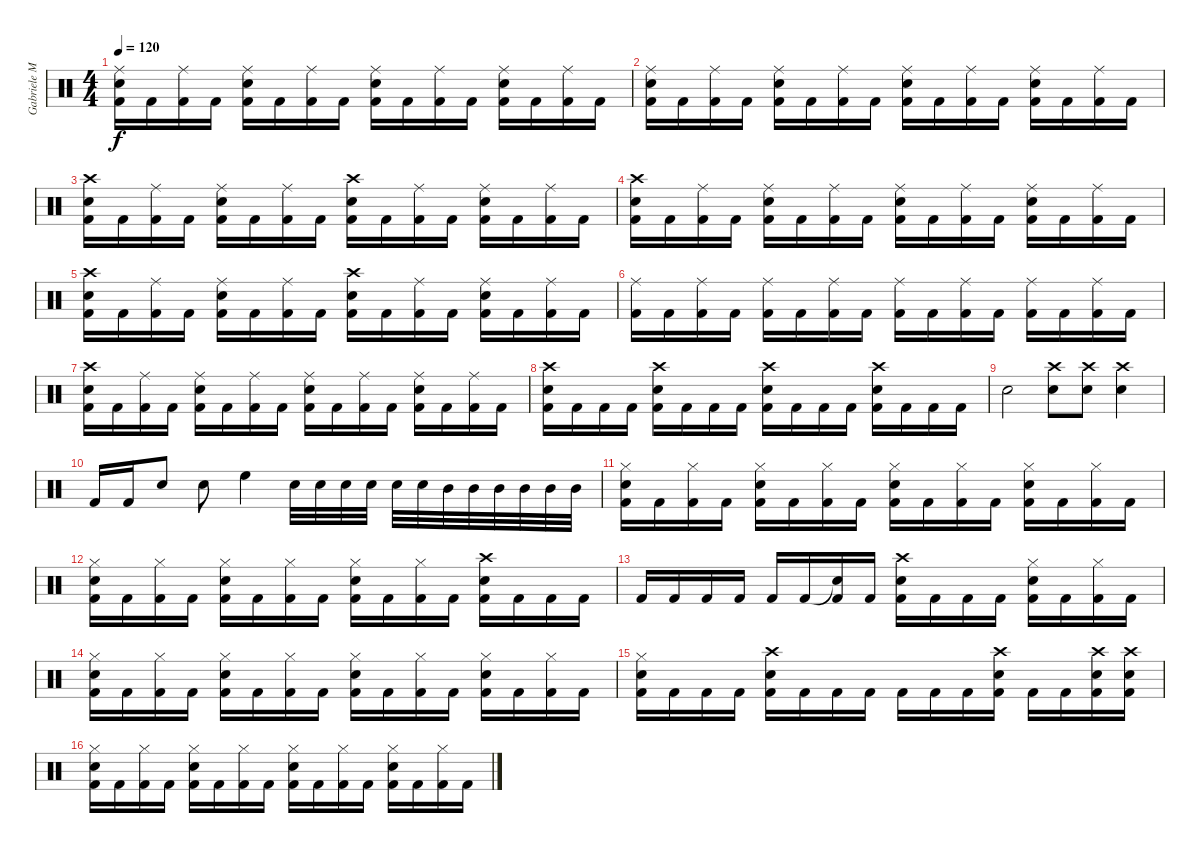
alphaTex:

\track ("Gabriele Malatesta" "Gabriele M") {instrument percussion}
\staff {score}
\articulation defaults
\ts (4 4)
\tempo 120
\clef neutral
\ks c
("Ride (middle)" "Electric Snare (hit)" "Kick (hit) 2").16{dy f} "Kick (hit) 2".16 ("Ride (middle)" "Kick (hit) 2").16 "Kick (hit) 2".16 ("Ride (middle)" "Electric Snare (hit)" "Kick (hit) 2").16 "Kick (hit) 2".16 ("Ride (middle)" "Kick (hit) 2").16 "Kick (hit) 2".16 ("Ride (middle)" "Electric Snare (hit)" "Kick (hit) 2").16 "Kick (hit) 2".16 ("Ride (middle)" "Kick (hit) 2").16 "Kick (hit) 2".16 ("Ride (middle)" "Electric Snare (hit)" "Kick (hit) 2").16 "Kick (hit) 2".16 ("Ride (middle)" "Kick (hit) 2").16 "Kick (hit) 2".16 |
("Ride (middle)" "Electric Snare (hit)" "Kick (hit) 2").16 "Kick (hit) 2".16 ("Ride (middle)" "Kick (hit) 2").16 "Kick (hit) 2".16 ("Ride (middle)" "Electric Snare (hit)" "Kick (hit) 2").16 "Kick (hit) 2".16 ("Ride (middle)" "Kick (hit) 2").16 "Kick (hit) 2".16 ("Ride (middle)" "Electric Snare (hit)" "Kick (hit) 2").16 "Kick (hit) 2".16 ("Ride (middle)" "Kick (hit) 2").16 "Kick (hit) 2".16 ("Ride (middle)" "Electric Snare (hit)" "Kick (hit) 2").16 "Kick (hit) 2".16 ("Ride (middle)" "Kick (hit) 2").16 "Kick (hit) 2".16 |
("Crash high (hit)" "Electric Snare (hit)" "Kick (hit) 2").16 "Kick (hit) 2".16 ("Ride (middle)" "Kick (hit) 2").16 "Kick (hit) 2".16 ("Ride (middle)" "Electric Snare (hit)" "Kick (hit) 2").16 "Kick (hit) 2".16 ("Ride (middle)" "Kick (hit) 2").16 "Kick (hit) 2".16 ("Crash high (hit)" "Electric Snare (hit)" "Kick (hit) 2").16 "Kick (hit) 2".16 ("Ride (middle)" "Kick (hit) 2").16 "Kick (hit) 2".16 ("Ride (middle)" "Electric Snare (hit)" "Kick (hit) 2").16 "Kick (hit) 2".16 ("Ride (middle)" "Kick (hit) 2").16 "Kick (hit) 2".16 |
("Crash high (hit)" "Electric Snare (hit)" "Kick (hit) 2").16 "Kick (hit) 2".16 ("Ride (middle)" "Kick (hit) 2").16 "Kick (hit) 2".16 ("Ride (middle)" "Electric Snare (hit)" "Kick (hit) 2").16 "Kick (hit) 2".16 ("Ride (middle)" "Kick (hit) 2").16 "Kick (hit) 2".16 ("Ride (middle)" "Electric Snare (hit)" "Kick (hit) 2").16 "Kick (hit) 2".16 ("Ride (middle)" "Kick (hit) 2").16 "Kick (hit) 2".16 ("Ride (middle)" "Electric Snare (hit)" "Kick (hit) 2").16 "Kick (hit) 2".16 ("Ride (middle)" "Kick (hit) 2").16 "Kick (hit) 2".16 |
("Crash high (hit)" "Electric Snare (hit)" "Kick (hit) 2").16 "Kick (hit) 2".16 ("Ride (middle)" "Kick (hit) 2").16 "Kick (hit) 2".16 ("Ride (middle)" "Electric Snare (hit)" "Kick (hit) 2").16 "Kick (hit) 2".16 ("Ride (middle)" "Kick (hit) 2").16 "Kick (hit) 2".16 ("Crash high (hit)" "Electric Snare (hit)" "Kick (hit) 2").16 "Kick (hit) 2".16 ("Ride (middle)" "Kick (hit) 2").16 "Kick (hit) 2".16 ("Ride (middle)" "Electric Snare (hit)" "Kick (hit) 2").16 "Kick (hit) 2".16 ("Ride (middle)" "Kick (hit) 2").16 "Kick (hit) 2".16 |
("Ride (middle)" "Kick (hit) 2").16 "Kick (hit) 2".16 ("Ride (middle)" "Kick (hit) 2").16 "Kick (hit) 2".16 ("Ride (middle)" "Kick (hit) 2").16 "Kick (hit) 2".16 ("Ride (middle)" "Kick (hit) 2").16 "Kick (hit) 2".16 ("Ride (middle)" "Kick (hit) 2").16 "Kick (hit) 2".16 ("Ride (middle)" "Kick (hit) 2").16 "Kick (hit) 2".16 ("Ride (middle)" "Kick (hit) 2").16 "Kick (hit) 2".16 ("Ride (middle)" "Kick (hit) 2").16 "Kick (hit) 2".16 |
("Crash high (hit)" "Electric Snare (hit)" "Kick (hit) 2").16 "Kick (hit) 2".16 ("Ride (middle)" "Kick (hit) 2").16 "Kick (hit) 2".16 ("Ride (middle)" "Electric Snare (hit)" "Kick (hit) 2").16 "Kick (hit) 2".16 ("Ride (middle)" "Kick (hit) 2").16 "Kick (hit) 2".16 ("Ride (middle)" "Electric Snare (hit)" "Kick (hit) 2").16 "Kick (hit) 2".16 ("Ride (middle)" "Kick (hit) 2").16 "Kick (hit) 2".16 ("Ride (middle)" "Electric Snare (hit)" "Kick (hit) 2").16 "Kick (hit) 2".16 ("Ride (middle)" "Kick (hit) 2").16 "Kick (hit) 2".16 |
("Crash high (hit)" "Electric Snare (hit)" "Kick (hit) 2").16 "Kick (hit) 2".16 "Kick (hit) 2".16 "Kick (hit) 2".16 ("Crash high (hit)" "Electric Snare (hit)" "Kick (hit) 2").16 "Kick (hit) 2".16 "Kick (hit) 2".16 "Kick (hit) 2".16 ("Crash high (hit)" "Electric Snare (hit)" "Kick (hit) 2").16 "Kick (hit) 2".16 "Kick (hit) 2".16 "Kick (hit) 2".16 ("Crash high (hit)" "Electric Snare (hit)" "Kick (hit) 2").16 "Kick (hit) 2".16 "Kick (hit) 2".16 "Kick (hit) 2".16 |
"Electric Snare (hit)".2 ("Crash high (hit)" "Electric Snare (hit)").8 ("Crash high (hit)" "Electric Snare (hit)").8 ("Crash high (hit)" "Electric Snare (hit)").4 |
"Kick (hit) 2".16 "Kick (hit) 2".16 "Electric Snare (hit)".8 "Electric Snare (hit)".8 "High Floor Tom (hit)".4 "Electric Snare (hit)".32 "Electric Snare (hit)".32 "Electric Snare (hit)".32 "Electric Snare (hit)".32 "Electric Snare (hit)".32 "Electric Snare (hit)".32 "Mid Tom (hit)".32 "Mid Tom (hit)".32 "Mid Tom (hit)".32 "Mid Tom (hit)".32 "Mid Tom (hit)".32 "Mid Tom (hit)".32 |
("Hi-Hat (closed)" "Electric Snare (hit)" "Kick (hit) 2").16 "Kick (hit) 2".16 ("Hi-Hat (closed)" "Kick (hit) 2").16 "Kick (hit) 2".16 ("Hi-Hat (closed)" "Electric Snare (hit)" "Kick (hit) 2").16 "Kick (hit) 2".16 ("Hi-Hat (closed)" "Kick (hit) 2").16 "Kick (hit) 2".16 ("Hi-Hat (closed)" "Electric Snare (hit)" "Kick (hit) 2").16 "Kick (hit) 2".16 ("Hi-Hat (closed)" "Kick (hit) 2").16 "Kick (hit) 2".16 ("Hi-Hat (closed)" "Electric Snare (hit)" "Kick (hit) 2").16 "Kick (hit) 2".16 ("Hi-Hat (closed)" "Kick (hit) 2").16 "Kick (hit) 2".16 |
("Hi-Hat (closed)" "Electric Snare (hit)" "Kick (hit) 2").16 "Kick (hit) 2".16 ("Hi-Hat (closed)" "Kick (hit) 2").16 "Kick (hit) 2".16 ("Hi-Hat (closed)" "Electric Snare (hit)" "Kick (hit) 2").16 "Kick (hit) 2".16 ("Hi-Hat (closed)" "Kick (hit) 2").16 "Kick (hit) 2".16 ("Hi-Hat (closed)" "Electric Snare (hit)" "Kick (hit) 2").16 "Kick (hit) 2".16 ("Hi-Hat (closed)" "Kick (hit) 2").16 "Kick (hit) 2".16 ("Crash high (hit)" "Electric Snare (hit)" "Kick (hit) 2").16 "Kick (hit) 2".16 "Kick (hit) 2".16 "Kick (hit) 2".16 |
"Kick (hit) 2".16 "Kick (hit) 2".16 "Kick (hit) 2".16 "Kick (hit) 2".16 "Kick (hit) 2".16 "Kick (hit) 2".16 ("Snare (hit)"{t} "Kick (hit) 2").16 "Kick (hit) 2".16 ("Crash high (hit)" "Electric Snare (hit)" "Kick (hit) 2").16 "Kick (hit) 2".16 "Kick (hit) 2".16 "Kick (hit) 2".16 ("Hi-Hat (closed)" "Electric Snare (hit)" "Kick (hit) 2").16 "Kick (hit) 2".16 ("Hi-Hat (closed)" "Kick (hit) 2").16 "Kick (hit) 2".16 |
("Hi-Hat (closed)" "Electric Snare (hit)" "Kick (hit) 2").16 "Kick (hit) 2".16 ("Hi-Hat (closed)" "Kick (hit) 2").16 "Kick (hit) 2".16 ("Hi-Hat (closed)" "Electric Snare (hit)" "Kick (hit) 2").16 "Kick (hit) 2".16 ("Hi-Hat (closed)" "Kick (hit) 2").16 "Kick (hit) 2".16 ("Hi-Hat (closed)" "Electric Snare (hit)" "Kick (hit) 2").16 "Kick (hit) 2".16 ("Hi-Hat (closed)" "Kick (hit) 2").16 "Kick (hit) 2".16 ("Hi-Hat (closed)" "Electric Snare (hit)" "Kick (hit) 2").16 "Kick (hit) 2".16 ("Hi-Hat (closed)" "Kick (hit) 2").16 "Kick (hit) 2".16 |
("Hi-Hat (closed)" "Electric Snare (hit)" "Kick (hit) 2").16 "Kick (hit) 2".16 "Kick (hit) 2".16 "Kick (hit) 2".16 ("Crash high (hit)" "Electric Snare (hit)" "Kick (hit) 2").16 "Kick (hit) 2".16 "Kick (hit) 2".16 "Kick (hit) 2".16 "Kick (hit) 2".16 "Kick (hit) 2".16 "Kick (hit) 2".16 ("Crash high (hit)" "Electric Snare (hit)" "Kick (hit) 2").16 "Kick (hit) 2".16 "Kick (hit) 2".16 ("Crash high (hit)" "Electric Snare (hit)" "Kick (hit) 2").16 ("Crash high (hit)" "Electric Snare (hit)" "Kick (hit) 2").16 |
("Hi-Hat (closed)" "Electric Snare (hit)" "Kick (hit) 2").16 "Kick (hit) 2".16 ("Hi-Hat (closed)" "Kick (hit) 2").16 "Kick (hit) 2".16 ("Hi-Hat (closed)" "Electric Snare (hit)" "Kick (hit) 2").16 "Kick (hit) 2".16 ("Hi-Hat (closed)" "Kick (hit) 2").16 "Kick (hit) 2".16 ("Hi-Hat (closed)" "Electric Snare (hit)" "Kick (hit) 2").16 "Kick (hit) 2".16 ("Hi-Hat (closed)" "Kick (hit) 2").16 "Kick (hit) 2".16 ("Hi-Hat (closed)" "Electric Snare (hit)" "Kick (hit) 2").16 "Kick (hit) 2".16 ("Hi-Hat (closed)" "Kick (hit) 2").16 "Kick (hit) 2".16
